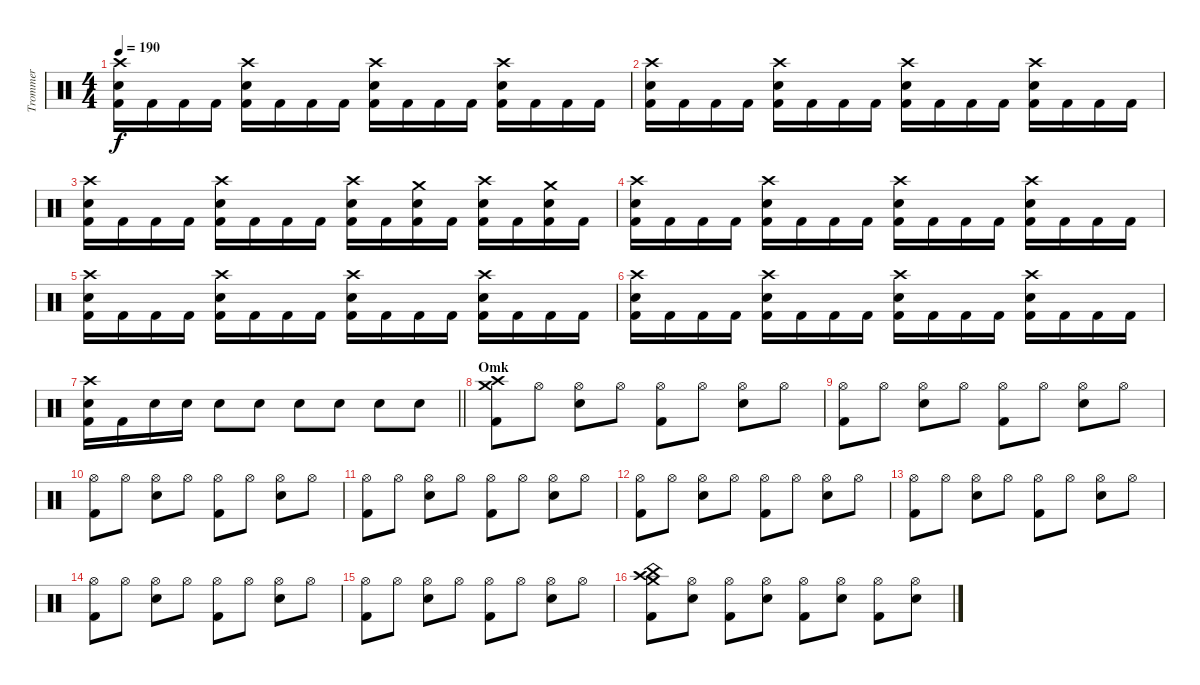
\track ("Trommer" "Trommer") {instrument percussion}
\staff {score}
\articulation defaults
\ts (4 4)
\tempo 190
\clef neutral
\ks c
("Crash high (hit)" "Snare (hit) 2" "Kick (hit) 2").16{dy f} "Kick (hit) 2".16 "Kick (hit) 2".16 "Kick (hit) 2".16 ("Crash high (hit)" "Snare (hit) 2" "Kick (hit) 2").16 "Kick (hit) 2".16 "Kick (hit) 2".16 "Kick (hit) 2".16 ("Crash high (hit)" "Snare (hit) 2" "Kick (hit) 2").16 "Kick (hit) 2".16 "Kick (hit) 2".16 "Kick (hit) 2".16 ("Crash high (hit)" "Snare (hit) 2" "Kick (hit) 2").16 "Kick (hit) 2".16 "Kick (hit) 2".16 "Kick (hit) 2".16 |
("Crash high (hit)" "Snare (hit) 2" "Kick (hit) 2").16 "Kick (hit) 2".16 "Kick (hit) 2".16 "Kick (hit) 2".16 ("Crash high (hit)" "Snare (hit) 2" "Kick (hit) 2").16 "Kick (hit) 2".16 "Kick (hit) 2".16 "Kick (hit) 2".16 ("Crash high (hit)" "Snare (hit) 2" "Kick (hit) 2").16 "Kick (hit) 2".16 "Kick (hit) 2".16 "Kick (hit) 2".16 ("Crash high (hit)" "Snare (hit) 2" "Kick (hit) 2").16 "Kick (hit) 2".16 "Kick (hit) 2".16 "Kick (hit) 2".16 |
("Crash high (hit)" "Snare (hit) 2" "Kick (hit) 2").16 "Kick (hit) 2".16 "Kick (hit) 2".16 "Kick (hit) 2".16 ("Crash high (hit)" "Snare (hit) 2" "Kick (hit) 2").16 "Kick (hit) 2".16 "Kick (hit) 2".16 "Kick (hit) 2".16 ("Crash high (hit)" "Snare (hit) 2" "Kick (hit) 2").16 "Kick (hit) 2".16 ("Crash medium (hit)" "Snare (hit) 2" "Kick (hit) 2").16 "Kick (hit) 2".16 ("Crash high (hit)" "Snare (hit) 2" "Kick (hit) 2").16 "Kick (hit) 2".16 ("Crash medium (hit)" "Snare (hit) 2" "Kick (hit) 2").16 "Kick (hit) 2".16 |
("Crash high (hit)" "Snare (hit) 2" "Kick (hit) 2").16 "Kick (hit) 2".16 "Kick (hit) 2".16 "Kick (hit) 2".16 ("Crash high (hit)" "Snare (hit) 2" "Kick (hit) 2").16 "Kick (hit) 2".16 "Kick (hit) 2".16 "Kick (hit) 2".16 ("Crash high (hit)" "Snare (hit) 2" "Kick (hit) 2").16 "Kick (hit) 2".16 "Kick (hit) 2".16 "Kick (hit) 2".16 ("Crash high (hit)" "Snare (hit) 2" "Kick (hit) 2").16 "Kick (hit) 2".16 "Kick (hit) 2".16 "Kick (hit) 2".16 |
("Crash high (hit)" "Snare (hit) 2" "Kick (hit) 2").16 "Kick (hit) 2".16 "Kick (hit) 2".16 "Kick (hit) 2".16 ("Crash high (hit)" "Snare (hit) 2" "Kick (hit) 2").16 "Kick (hit) 2".16 "Kick (hit) 2".16 "Kick (hit) 2".16 ("Crash high (hit)" "Snare (hit) 2" "Kick (hit) 2").16 "Kick (hit) 2".16 "Kick (hit) 2".16 "Kick (hit) 2".16 ("Crash high (hit)" "Snare (hit) 2" "Kick (hit) 2").16 "Kick (hit) 2".16 "Kick (hit) 2".16 "Kick (hit) 2".16 |
("Crash high (hit)" "Snare (hit) 2" "Kick (hit) 2").16 "Kick (hit) 2".16 "Kick (hit) 2".16 "Kick (hit) 2".16 ("Crash high (hit)" "Snare (hit) 2" "Kick (hit) 2").16 "Kick (hit) 2".16 "Kick (hit) 2".16 "Kick (hit) 2".16 ("Crash high (hit)" "Snare (hit) 2" "Kick (hit) 2").16 "Kick (hit) 2".16 "Kick (hit) 2".16 "Kick (hit) 2".16 ("Crash high (hit)" "Snare (hit) 2" "Kick (hit) 2").16 "Kick (hit) 2".16 "Kick (hit) 2".16 "Kick (hit) 2".16 |
\barLineRight lightlight
("Crash high (hit)" "Snare (hit) 2" "Kick (hit) 2").16 "Kick (hit) 2".16 "Snare (hit) 2".16 "Snare (hit) 2".16 "Snare (hit) 2".8 "Snare (hit) 2".8 "Snare (hit) 2".8 "Snare (hit) 2".8 "Snare (hit) 2".8 "Snare (hit) 2".8 |
\section ("" "Omk")
("Crash medium (hit)" "Crash high (hit)" "Kick (hit) 2").8 "Hi-Hat (open)".8 ("Hi-Hat (open)" "Snare (hit) 2").8 "Hi-Hat (open)".8 ("Hi-Hat (open)" "Kick (hit) 2").8 "Hi-Hat (open)".8 ("Hi-Hat (open)" "Snare (hit) 2").8 "Hi-Hat (open)".8 |
("Hi-Hat (open)" "Kick (hit) 2").8 "Hi-Hat (open)".8 ("Hi-Hat (open)" "Snare (hit) 2").8 "Hi-Hat (open)".8 ("Hi-Hat (open)" "Kick (hit) 2").8 "Hi-Hat (open)".8 ("Hi-Hat (open)" "Snare (hit) 2").8 "Hi-Hat (open)".8 |
("Hi-Hat (open)" "Kick (hit) 2").8 "Hi-Hat (open)".8 ("Hi-Hat (open)" "Snare (hit) 2").8 "Hi-Hat (open)".8 ("Hi-Hat (open)" "Kick (hit) 2").8 "Hi-Hat (open)".8 ("Hi-Hat (open)" "Snare (hit) 2").8 "Hi-Hat (open)".8 |
("Hi-Hat (open)" "Kick (hit) 2").8 "Hi-Hat (open)".8 ("Hi-Hat (open)" "Snare (hit) 2").8 "Hi-Hat (open)".8 ("Hi-Hat (open)" "Kick (hit) 2").8 "Hi-Hat (open)".8 ("Hi-Hat (open)" "Snare (hit) 2").8 "Hi-Hat (open)".8 |
("Hi-Hat (open)" "Kick (hit) 2").8 "Hi-Hat (open)".8 ("Hi-Hat (open)" "Snare (hit) 2").8 "Hi-Hat (open)".8 ("Hi-Hat (open)" "Kick (hit) 2").8 "Hi-Hat (open)".8 ("Hi-Hat (open)" "Snare (hit) 2").8 "Hi-Hat (open)".8 |
("Hi-Hat (open)" "Kick (hit) 2").8 "Hi-Hat (open)".8 ("Hi-Hat (open)" "Snare (hit) 2").8 "Hi-Hat (open)".8 ("Hi-Hat (open)" "Kick (hit) 2").8 "Hi-Hat (open)".8 ("Hi-Hat (open)" "Snare (hit) 2").8 "Hi-Hat (open)".8 |
("Hi-Hat (open)" "Kick (hit) 2").8 "Hi-Hat (open)".8 ("Hi-Hat (open)" "Snare (hit) 2").8 "Hi-Hat (open)".8 ("Hi-Hat (open)" "Kick (hit) 2").8 "Hi-Hat (open)".8 ("Hi-Hat (open)" "Snare (hit) 2").8 "Hi-Hat (open)".8 |
("Hi-Hat (open)" "Kick (hit) 2").8 "Hi-Hat (open)".8 ("Hi-Hat (open)" "Snare (hit) 2").8 "Hi-Hat (open)".8 ("Hi-Hat (open)" "Kick (hit) 2").8 "Hi-Hat (open)".8 ("Hi-Hat (open)" "Snare (hit) 2").8 "Hi-Hat (open)".8 |
("Crash medium (hit)" "Crash high (hit)" "China (hit)" "Kick (hit) 2").8 ("Hi-Hat (open)" "Snare (hit) 2").8 ("Hi-Hat (open)" "Kick (hit) 2").8 ("Hi-Hat (open)" "Snare (hit) 2").8 ("Hi-Hat (open)" "Kick (hit) 2").8 ("Hi-Hat (open)" "Snare (hit) 2").8 ("Hi-Hat (open)" "Kick (hit) 2").8 ("Hi-Hat (open)" "Snare (hit) 2").8
